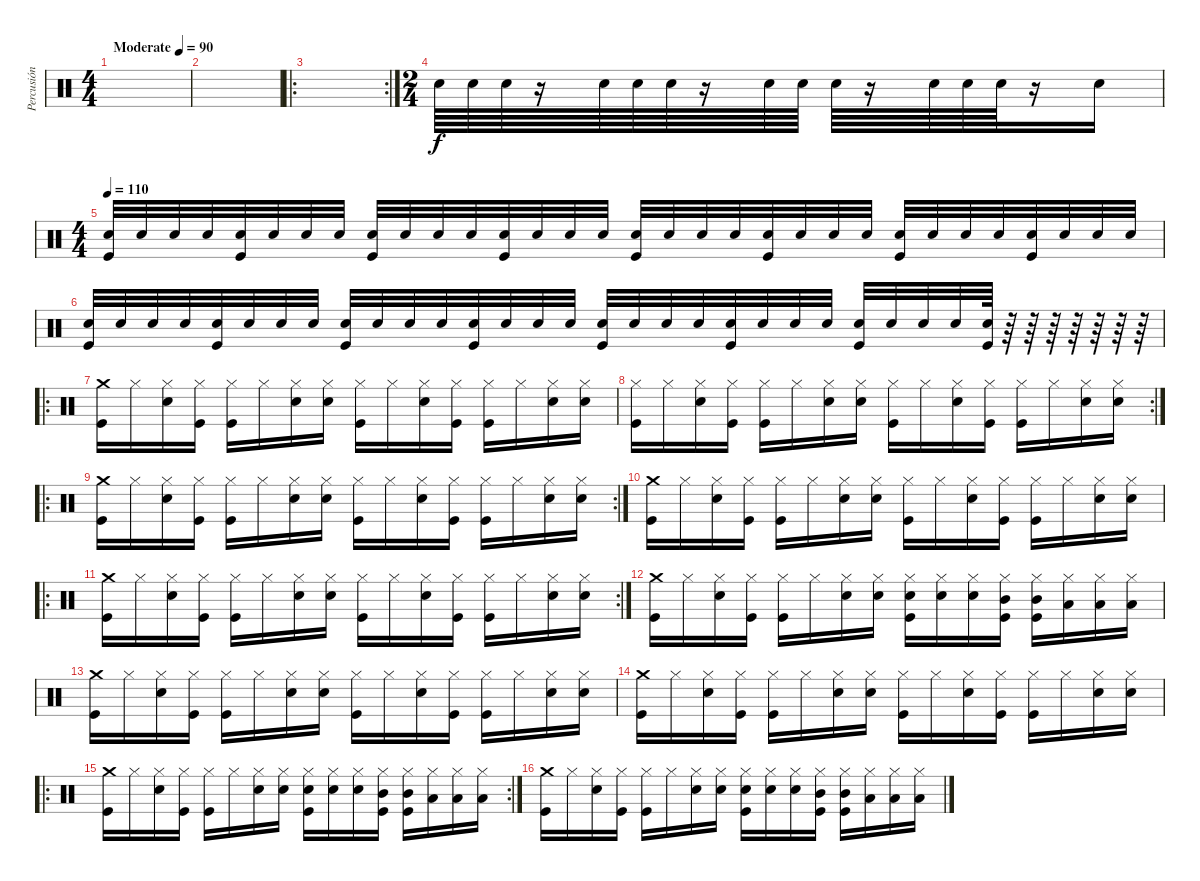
\track ("Percusión" "Percusión") {instrument percussion}
\staff {score}
\articulation defaults
\ts (4 4)
\tempo (90 "Moderate")
\clef neutral
\ks c
|
|
\ro
\rc 2
|
\ts (2 4)
"Electric Snare (hit)".64 "Electric Snare (hit)".64 "Electric Snare (hit)".64 r.16 "Electric Snare (hit)".64 "Electric Snare (hit)".64 "Electric Snare (hit)".64 r.16 "Electric Snare (hit)".64 "Electric Snare (hit)".64 "Electric Snare (hit)".64 r.16 "Electric Snare (hit)".64 "Electric Snare (hit)".64 "Electric Snare (hit)".64 r.16 "Electric Snare (hit)".16 |
\ts (4 4)
\tempo 110
("Electric Snare (hit)" "Kick (hit)").32 "Electric Snare (hit)".32 "Electric Snare (hit)".32 "Electric Snare (hit)".32 ("Electric Snare (hit)" "Kick (hit)").32 "Electric Snare (hit)".32 "Electric Snare (hit)".32 "Electric Snare (hit)".32 ("Electric Snare (hit)" "Kick (hit)").32 "Electric Snare (hit)".32 "Electric Snare (hit)".32 "Electric Snare (hit)".32 ("Electric Snare (hit)" "Kick (hit)").32 "Electric Snare (hit)".32 "Electric Snare (hit)".32 "Electric Snare (hit)".32 ("Electric Snare (hit)" "Kick (hit)").32 "Electric Snare (hit)".32 "Electric Snare (hit)".32 "Electric Snare (hit)".32 ("Electric Snare (hit)" "Kick (hit)").32 "Electric Snare (hit)".32 "Electric Snare (hit)".32 "Electric Snare (hit)".32 ("Electric Snare (hit)" "Kick (hit)").32 "Electric Snare (hit)".32 "Electric Snare (hit)".32 "Electric Snare (hit)".32 ("Electric Snare (hit)" "Kick (hit)").32 "Electric Snare (hit)".32 "Electric Snare (hit)".32 "Electric Snare (hit)".32 |
("Electric Snare (hit)" "Kick (hit)").32 "Electric Snare (hit)".32 "Electric Snare (hit)".32 "Electric Snare (hit)".32 ("Electric Snare (hit)" "Kick (hit)").32 "Electric Snare (hit)".32 "Electric Snare (hit)".32 "Electric Snare (hit)".32 ("Electric Snare (hit)" "Kick (hit)").32 "Electric Snare (hit)".32 "Electric Snare (hit)".32 "Electric Snare (hit)".32 ("Electric Snare (hit)" "Kick (hit)").32 "Electric Snare (hit)".32 "Electric Snare (hit)".32 "Electric Snare (hit)".32 ("Electric Snare (hit)" "Kick (hit)").32 "Electric Snare (hit)".32 "Electric Snare (hit)".32 "Electric Snare (hit)".32 ("Electric Snare (hit)" "Kick (hit)").32 "Electric Snare (hit)".32 "Electric Snare (hit)".32 "Electric Snare (hit)".32 ("Electric Snare (hit)" "Kick (hit)").32 "Electric Snare (hit)".32 "Electric Snare (hit)".32 "Electric Snare (hit)".32 ("Electric Snare (hit)" "Kick (hit)").64 r.64 r.64 r.64 r.64 r.64 r.64 r.64 |
\ro
("Crash medium (hit)" "Kick (hit)").16 "Hi-Hat (closed)".16 ("Hi-Hat (closed)" "Electric Snare (hit)").16 ("Hi-Hat (closed)" "Kick (hit)").16 ("Hi-Hat (closed)" "Kick (hit)").16 "Hi-Hat (closed)".16 ("Hi-Hat (closed)" "Electric Snare (hit)").16 ("Hi-Hat (closed)" "Electric Snare (hit)").16 ("Hi-Hat (closed)" "Kick (hit)").16 "Hi-Hat (closed)".16 ("Hi-Hat (closed)" "Electric Snare (hit)").16 ("Hi-Hat (closed)" "Kick (hit)").16 ("Hi-Hat (closed)" "Kick (hit)").16 "Hi-Hat (closed)".16 ("Hi-Hat (closed)" "Electric Snare (hit)").16 ("Hi-Hat (closed)" "Electric Snare (hit)").16 |
\rc 2
("Hi-Hat (closed)" "Kick (hit)").16 "Hi-Hat (closed)".16 ("Hi-Hat (closed)" "Electric Snare (hit)").16 ("Hi-Hat (closed)" "Kick (hit)").16 ("Hi-Hat (closed)" "Kick (hit)").16 "Hi-Hat (closed)".16 ("Hi-Hat (closed)" "Electric Snare (hit)").16 ("Hi-Hat (closed)" "Electric Snare (hit)").16 ("Hi-Hat (closed)" "Kick (hit)").16 "Hi-Hat (closed)".16 ("Hi-Hat (closed)" "Electric Snare (hit)").16 ("Hi-Hat (closed)" "Kick (hit)").16 ("Hi-Hat (closed)" "Kick (hit)").16 "Hi-Hat (closed)".16 ("Hi-Hat (closed)" "Electric Snare (hit)").16 ("Hi-Hat (closed)" "Electric Snare (hit)").16 |
\ro
\rc 2
("Crash medium (hit)" "Kick (hit)").16 "Hi-Hat (closed)".16 ("Hi-Hat (closed)" "Electric Snare (hit)").16 ("Hi-Hat (closed)" "Kick (hit)").16 ("Hi-Hat (closed)" "Kick (hit)").16 "Hi-Hat (closed)".16 ("Hi-Hat (closed)" "Electric Snare (hit)").16 ("Hi-Hat (closed)" "Electric Snare (hit)").16 ("Hi-Hat (closed)" "Kick (hit)").16 "Hi-Hat (closed)".16 ("Hi-Hat (closed)" "Electric Snare (hit)").16 ("Hi-Hat (closed)" "Kick (hit)").16 ("Hi-Hat (closed)" "Kick (hit)").16 "Hi-Hat (closed)".16 ("Hi-Hat (closed)" "Electric Snare (hit)").16 ("Hi-Hat (closed)" "Electric Snare (hit)").16 |
("Crash medium (hit)" "Kick (hit)").16 "Hi-Hat (closed)".16 ("Hi-Hat (closed)" "Electric Snare (hit)").16 ("Hi-Hat (closed)" "Kick (hit)").16 ("Hi-Hat (closed)" "Kick (hit)").16 "Hi-Hat (closed)".16 ("Hi-Hat (closed)" "Electric Snare (hit)").16 ("Hi-Hat (closed)" "Electric Snare (hit)").16 ("Hi-Hat (closed)" "Kick (hit)").16 "Hi-Hat (closed)".16 ("Hi-Hat (closed)" "Electric Snare (hit)").16 ("Hi-Hat (closed)" "Kick (hit)").16 ("Hi-Hat (closed)" "Kick (hit)").16 "Hi-Hat (closed)".16 ("Hi-Hat (closed)" "Electric Snare (hit)").16 ("Hi-Hat (closed)" "Electric Snare (hit)").16 |
\ro
\rc 2
("Crash medium (hit)" "Kick (hit)").16 "Hi-Hat (closed)".16 ("Hi-Hat (closed)" "Electric Snare (hit)").16 ("Hi-Hat (closed)" "Kick (hit)").16 ("Hi-Hat (closed)" "Kick (hit)").16 "Hi-Hat (closed)".16 ("Hi-Hat (closed)" "Electric Snare (hit)").16 ("Hi-Hat (closed)" "Electric Snare (hit)").16 ("Hi-Hat (closed)" "Kick (hit)").16 "Hi-Hat (closed)".16 ("Hi-Hat (closed)" "Electric Snare (hit)").16 ("Hi-Hat (closed)" "Kick (hit)").16 ("Hi-Hat (closed)" "Kick (hit)").16 "Hi-Hat (closed)".16 ("Hi-Hat (closed)" "Electric Snare (hit)").16 ("Hi-Hat (closed)" "Electric Snare (hit)").16 |
("Crash medium (hit)" "Kick (hit)").16 "Hi-Hat (closed)".16 ("Hi-Hat (closed)" "Electric Snare (hit)").16 ("Hi-Hat (closed)" "Kick (hit)").16 ("Hi-Hat (closed)" "Kick (hit)").16 "Hi-Hat (closed)".16 ("Hi-Hat (closed)" "Electric Snare (hit)").16 ("Hi-Hat (closed)" "Electric Snare (hit)").16 ("Hi-Hat (closed)" "Electric Snare (hit)" "Kick (hit)").16 ("Hi-Hat (closed)" "Electric Snare (hit)").16 ("Hi-Hat (closed)" "Electric Snare (hit)").16 ("Hi-Hat (closed)" "Mid Tom (hit)" "Kick (hit)").16 ("Hi-Hat (closed)" "Mid Tom (hit)" "Kick (hit)").16 ("Hi-Hat (closed)" "Low Tom (hit)").16 ("Hi-Hat (closed)" "Low Tom (hit)").16 ("Hi-Hat (closed)" "Low Floor Tom (hit)").16 |
("Crash medium (hit)" "Kick (hit)").16 "Hi-Hat (closed)".16 ("Hi-Hat (closed)" "Electric Snare (hit)").16 ("Hi-Hat (closed)" "Kick (hit)").16 ("Hi-Hat (closed)" "Kick (hit)").16 "Hi-Hat (closed)".16 ("Hi-Hat (closed)" "Electric Snare (hit)").16 ("Hi-Hat (closed)" "Electric Snare (hit)").16 ("Hi-Hat (closed)" "Kick (hit)").16 "Hi-Hat (closed)".16 ("Hi-Hat (closed)" "Electric Snare (hit)").16 ("Hi-Hat (closed)" "Kick (hit)").16 ("Hi-Hat (closed)" "Kick (hit)").16 "Hi-Hat (closed)".16 ("Hi-Hat (closed)" "Electric Snare (hit)").16 ("Hi-Hat (closed)" "Electric Snare (hit)").16 |
("Crash medium (hit)" "Kick (hit)").16 "Hi-Hat (closed)".16 ("Hi-Hat (closed)" "Electric Snare (hit)").16 ("Hi-Hat (closed)" "Kick (hit)").16 ("Hi-Hat (closed)" "Kick (hit)").16 "Hi-Hat (closed)".16 ("Hi-Hat (closed)" "Electric Snare (hit)").16 ("Hi-Hat (closed)" "Electric Snare (hit)").16 ("Hi-Hat (closed)" "Kick (hit)").16 "Hi-Hat (closed)".16 ("Hi-Hat (closed)" "Electric Snare (hit)").16 ("Hi-Hat (closed)" "Kick (hit)").16 ("Hi-Hat (closed)" "Kick (hit)").16 "Hi-Hat (closed)".16 ("Hi-Hat (closed)" "Electric Snare (hit)").16 ("Hi-Hat (closed)" "Electric Snare (hit)").16 |
\ro
\rc 2
("Crash medium (hit)" "Kick (hit)").16 "Hi-Hat (closed)".16 ("Hi-Hat (closed)" "Electric Snare (hit)").16 ("Hi-Hat (closed)" "Kick (hit)").16 ("Hi-Hat (closed)" "Kick (hit)").16 "Hi-Hat (closed)".16 ("Hi-Hat (closed)" "Electric Snare (hit)").16 ("Hi-Hat (closed)" "Electric Snare (hit)").16 ("Hi-Hat (closed)" "Electric Snare (hit)" "Kick (hit)").16 ("Hi-Hat (closed)" "Electric Snare (hit)").16 ("Hi-Hat (closed)" "Electric Snare (hit)").16 ("Hi-Hat (closed)" "Mid Tom (hit)" "Kick (hit)").16 ("Hi-Hat (closed)" "Mid Tom (hit)" "Kick (hit)").16 ("Hi-Hat (closed)" "Low Tom (hit)").16 ("Hi-Hat (closed)" "Low Tom (hit)").16 ("Hi-Hat (closed)" "Low Floor Tom (hit)").16 |
("Crash medium (hit)" "Kick (hit)").16 "Hi-Hat (closed)".16 ("Hi-Hat (closed)" "Electric Snare (hit)").16 ("Hi-Hat (closed)" "Kick (hit)").16 ("Hi-Hat (closed)" "Kick (hit)").16 "Hi-Hat (closed)".16 ("Hi-Hat (closed)" "Electric Snare (hit)").16 ("Hi-Hat (closed)" "Electric Snare (hit)").16 ("Hi-Hat (closed)" "Electric Snare (hit)" "Kick (hit)").16 ("Hi-Hat (closed)" "Electric Snare (hit)").16 ("Hi-Hat (closed)" "Electric Snare (hit)").16 ("Hi-Hat (closed)" "Mid Tom (hit)" "Kick (hit)").16 ("Hi-Hat (closed)" "Mid Tom (hit)" "Kick (hit)").16 ("Hi-Hat (closed)" "Low Tom (hit)").16 ("Hi-Hat (closed)" "Low Tom (hit)").16 ("Hi-Hat (closed)" "Low Floor Tom (hit)").16
